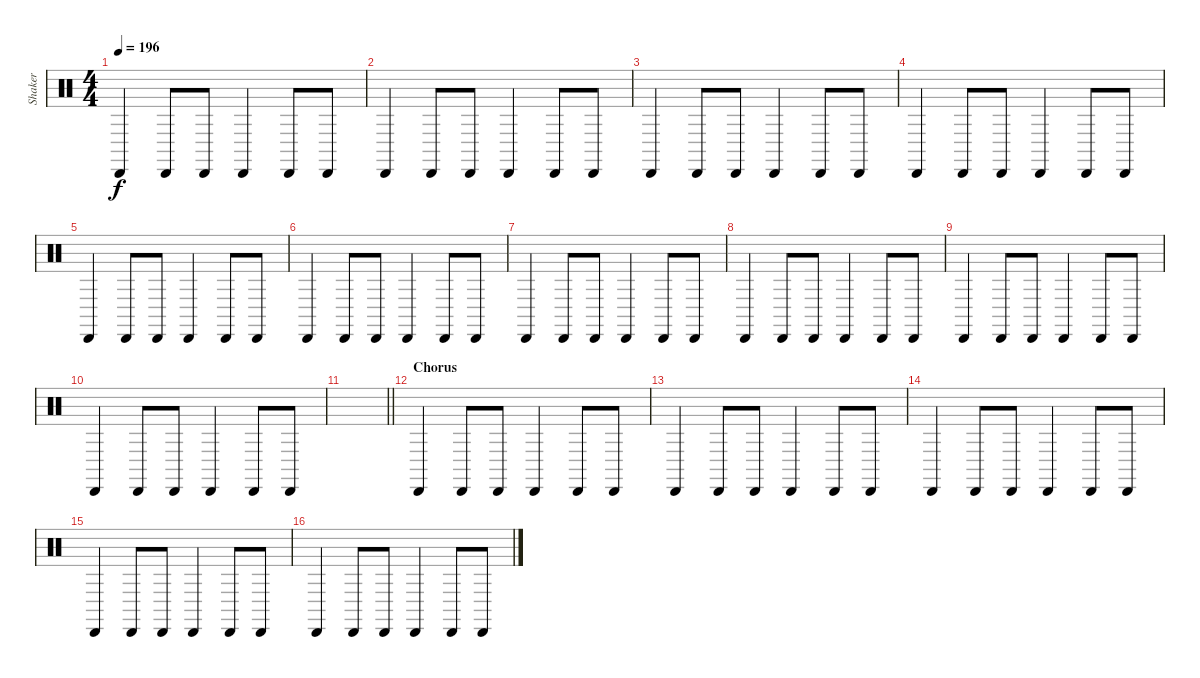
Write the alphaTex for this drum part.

\track ("Shaker" "Shaker") {instrument percussion bank 126}
\staff {score}
\articulation defaults
\ts (4 4)
\tempo 196
\clef neutral
\ks c "Cabasa (hit)".4{dy f} "Cabasa (hit)".8 "Cabasa (hit)".8 "Cabasa (hit)".4 "Cabasa (hit)".8 "Cabasa (hit)".8
|
"Cabasa (hit)".4 "Cabasa (hit)".8 "Cabasa (hit)".8 "Cabasa (hit)".4 "Cabasa (hit)".8 "Cabasa (hit)".8 |
"Cabasa (hit)".4 "Cabasa (hit)".8 "Cabasa (hit)".8 "Cabasa (hit)".4 "Cabasa (hit)".8 "Cabasa (hit)".8 |
"Cabasa (hit)".4 "Cabasa (hit)".8 "Cabasa (hit)".8 "Cabasa (hit)".4 "Cabasa (hit)".8 "Cabasa (hit)".8 |
"Cabasa (hit)".4 "Cabasa (hit)".8 "Cabasa (hit)".8 "Cabasa (hit)".4 "Cabasa (hit)".8 "Cabasa (hit)".8 |
"Cabasa (hit)".4 "Cabasa (hit)".8 "Cabasa (hit)".8 "Cabasa (hit)".4 "Cabasa (hit)".8 "Cabasa (hit)".8 |
"Cabasa (hit)".4 "Cabasa (hit)".8 "Cabasa (hit)".8 "Cabasa (hit)".4 "Cabasa (hit)".8 "Cabasa (hit)".8 |
"Cabasa (hit)".4 "Cabasa (hit)".8 "Cabasa (hit)".8 "Cabasa (hit)".4 "Cabasa (hit)".8 "Cabasa (hit)".8 |
"Cabasa (hit)".4 "Cabasa (hit)".8 "Cabasa (hit)".8 "Cabasa (hit)".4 "Cabasa (hit)".8 "Cabasa (hit)".8 |
"Cabasa (hit)".4 "Cabasa (hit)".8 "Cabasa (hit)".8 "Cabasa (hit)".4 "Cabasa (hit)".8 "Cabasa (hit)".8 |
\barLineRight lightlight
|
\section ("" "Chorus")
"Cabasa (hit)".4 "Cabasa (hit)".8 "Cabasa (hit)".8 "Cabasa (hit)".4 "Cabasa (hit)".8 "Cabasa (hit)".8 |
"Cabasa (hit)".4 "Cabasa (hit)".8 "Cabasa (hit)".8 "Cabasa (hit)".4 "Cabasa (hit)".8 "Cabasa (hit)".8 |
"Cabasa (hit)".4 "Cabasa (hit)".8 "Cabasa (hit)".8 "Cabasa (hit)".4 "Cabasa (hit)".8 "Cabasa (hit)".8 |
"Cabasa (hit)".4 "Cabasa (hit)".8 "Cabasa (hit)".8 "Cabasa (hit)".4 "Cabasa (hit)".8 "Cabasa (hit)".8 |
"Cabasa (hit)".4 "Cabasa (hit)".8 "Cabasa (hit)".8 "Cabasa (hit)".4 "Cabasa (hit)".8 "Cabasa (hit)".8
